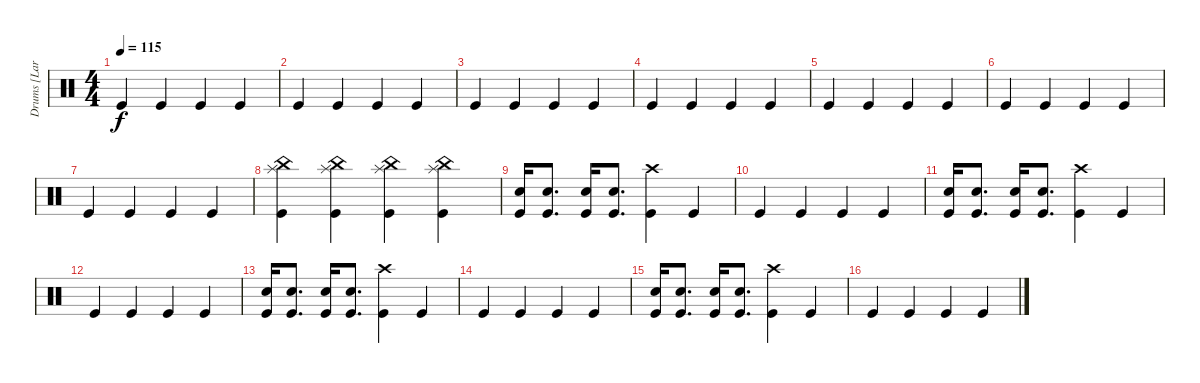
\track ("Drums [Larz]" "Drums [Lar") {instrument percussion}
\staff {score}
\articulation defaults
\ts (4 4)
\tempo 115
\clef neutral
\ks c "Kick (hit)".4{dy f} "Kick (hit)".4 "Kick (hit)".4 "Kick (hit)".4
|
"Kick (hit)".4 "Kick (hit)".4 "Kick (hit)".4 "Kick (hit)".4 |
"Kick (hit)".4 "Kick (hit)".4 "Kick (hit)".4 "Kick (hit)".4 |
"Kick (hit)".4 "Kick (hit)".4 "Kick (hit)".4 "Kick (hit)".4 |
"Kick (hit)".4 "Kick (hit)".4 "Kick (hit)".4 "Kick (hit)".4 |
"Kick (hit)".4 "Kick (hit)".4 "Kick (hit)".4 "Kick (hit)".4 |
"Kick (hit)".4 "Kick (hit)".4 "Kick (hit)".4 "Kick (hit)".4 |
("Kick (hit)" "China (hit)" "Splash (hit)").4 ("Kick (hit)" "China (hit)" "Splash (hit)").4 ("Kick (hit)" "China (hit)" "Splash (hit)").4 ("Kick (hit)" "China (hit)" "Splash (hit)").4 |
("Kick (hit)" "Electric Snare (hit)").16 ("Kick (hit)" "Electric Snare (hit)").8{d} ("Kick (hit)" "Electric Snare (hit)").16 ("Kick (hit)" "Electric Snare (hit)").8{d} ("Kick (hit)" "Crash high (hit)").4 "Kick (hit)".4 |
"Kick (hit)".4 "Kick (hit)".4 "Kick (hit)".4 "Kick (hit)".4 |
("Kick (hit)" "Electric Snare (hit)").16 ("Kick (hit)" "Electric Snare (hit)").8{d} ("Kick (hit)" "Electric Snare (hit)").16 ("Kick (hit)" "Electric Snare (hit)").8{d} ("Kick (hit)" "Crash high (hit)").4 "Kick (hit)".4 |
"Kick (hit)".4 "Kick (hit)".4 "Kick (hit)".4 "Kick (hit)".4 |
("Kick (hit)" "Electric Snare (hit)").16 ("Kick (hit)" "Electric Snare (hit)").8{d} ("Kick (hit)" "Electric Snare (hit)").16 ("Kick (hit)" "Electric Snare (hit)").8{d} ("Kick (hit)" "Crash high (hit)").4 "Kick (hit)".4 |
"Kick (hit)".4 "Kick (hit)".4 "Kick (hit)".4 "Kick (hit)".4 |
("Kick (hit)" "Electric Snare (hit)").16 ("Kick (hit)" "Electric Snare (hit)").8{d} ("Kick (hit)" "Electric Snare (hit)").16 ("Kick (hit)" "Electric Snare (hit)").8{d} ("Kick (hit)" "Crash high (hit)").4 "Kick (hit)".4 |
"Kick (hit)".4 "Kick (hit)".4 "Kick (hit)".4 "Kick (hit)".4
